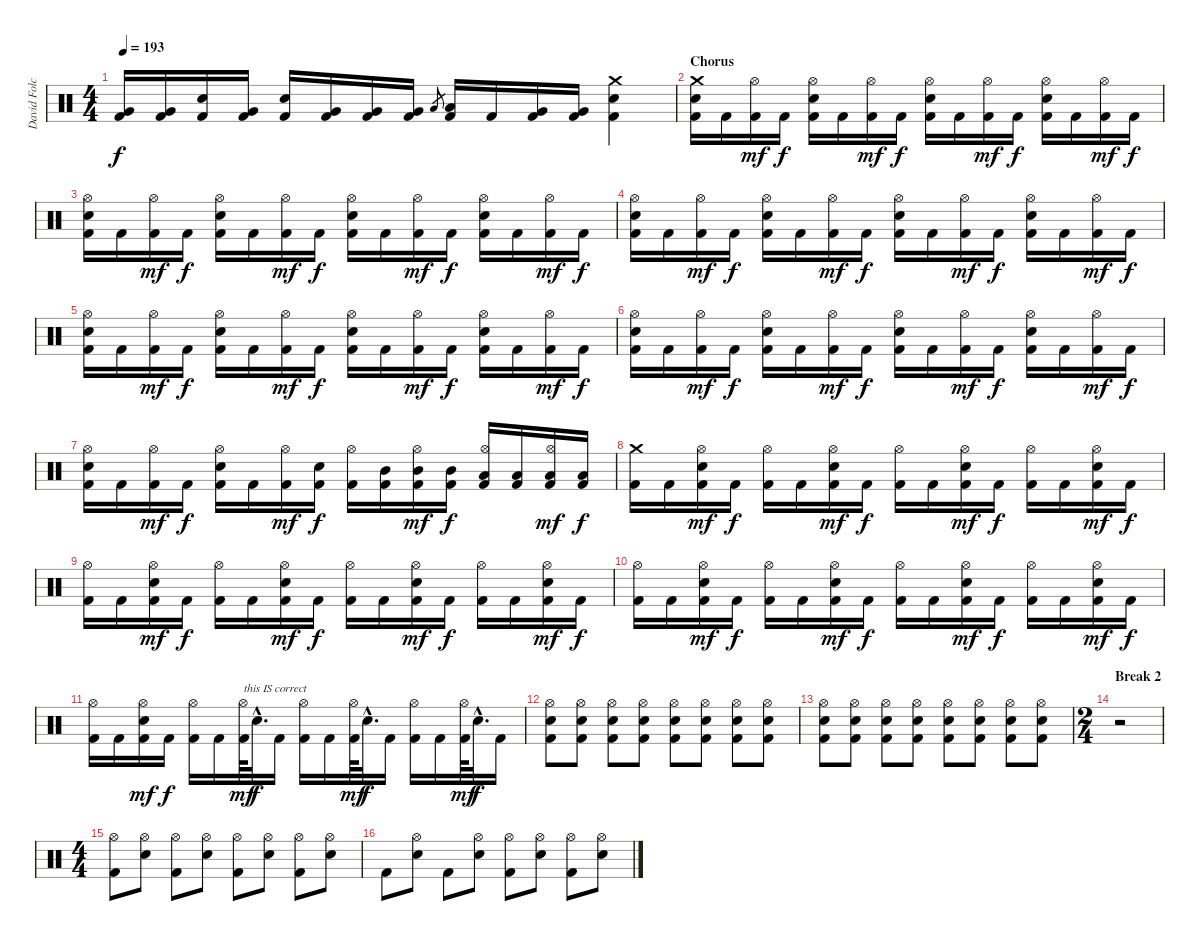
\track ("David Folchitto" "David Folc") {instrument percussion}
\staff {score}
\articulation defaults
\ts (4 4)
\tempo 193
\clef neutral
\ks c
("Very Low Tom (hit)" "Kick (hit) 2").16{dy f} ("Very Low Tom (hit)" "Kick (hit) 2").16 ("Snare (hit) 2" "Kick (hit) 2").16 ("Very Low Tom (hit)" "Kick (hit) 2").16 ("Snare (hit) 2" "Kick (hit) 2").16 ("Very Low Tom (hit)" "Kick (hit) 2").16 ("Very Low Tom (hit)" "Kick (hit) 2").16 ("Very Low Tom (hit)" "Kick (hit) 2").16 "Low Floor Tom (hit)".8{gr} ("Low Floor Tom (hit)" "Kick (hit) 2").16 "Kick (hit) 2".16 ("Very Low Tom (hit)" "Kick (hit) 2").16 ("Very Low Tom (hit)" "Kick (hit) 2").16 ("Crash medium (hit)" "Snare (hit) 2" "Kick (hit) 2").4 |
\section ("" "Chorus")
("Crash medium (hit)" "Snare (hit) 2" "Kick (hit) 2").16 "Kick (hit) 2".16 ("Hi-Hat (open)" "Kick (hit) 2").16{dy mf} "Kick (hit) 2".16{dy f} ("Hi-Hat (open)" "Snare (hit) 2" "Kick (hit) 2").16 "Kick (hit) 2".16 ("Hi-Hat (open)" "Kick (hit) 2").16{dy mf} "Kick (hit) 2".16{dy f} ("Hi-Hat (open)" "Snare (hit) 2" "Kick (hit) 2").16 "Kick (hit) 2".16 ("Hi-Hat (open)" "Kick (hit) 2").16{dy mf} "Kick (hit) 2".16{dy f} ("Hi-Hat (open)" "Snare (hit) 2" "Kick (hit) 2").16 "Kick (hit) 2".16 ("Hi-Hat (open)" "Kick (hit) 2").16{dy mf} "Kick (hit) 2".16{dy f} |
("Hi-Hat (open)" "Snare (hit) 2" "Kick (hit) 2").16 "Kick (hit) 2".16 ("Hi-Hat (open)" "Kick (hit) 2").16{dy mf} "Kick (hit) 2".16{dy f} ("Hi-Hat (open)" "Snare (hit) 2" "Kick (hit) 2").16 "Kick (hit) 2".16 ("Hi-Hat (open)" "Kick (hit) 2").16{dy mf} "Kick (hit) 2".16{dy f} ("Hi-Hat (open)" "Snare (hit) 2" "Kick (hit) 2").16 "Kick (hit) 2".16 ("Hi-Hat (open)" "Kick (hit) 2").16{dy mf} "Kick (hit) 2".16{dy f} ("Hi-Hat (open)" "Snare (hit) 2" "Kick (hit) 2").16 "Kick (hit) 2".16 ("Hi-Hat (open)" "Kick (hit) 2").16{dy mf} "Kick (hit) 2".16{dy f} |
("Hi-Hat (open)" "Snare (hit) 2" "Kick (hit) 2").16 "Kick (hit) 2".16 ("Hi-Hat (open)" "Kick (hit) 2").16{dy mf} "Kick (hit) 2".16{dy f} ("Hi-Hat (open)" "Snare (hit) 2" "Kick (hit) 2").16 "Kick (hit) 2".16 ("Hi-Hat (open)" "Kick (hit) 2").16{dy mf} "Kick (hit) 2".16{dy f} ("Hi-Hat (open)" "Snare (hit) 2" "Kick (hit) 2").16 "Kick (hit) 2".16 ("Hi-Hat (open)" "Kick (hit) 2").16{dy mf} "Kick (hit) 2".16{dy f} ("Hi-Hat (open)" "Snare (hit) 2" "Kick (hit) 2").16 "Kick (hit) 2".16 ("Hi-Hat (open)" "Kick (hit) 2").16{dy mf} "Kick (hit) 2".16{dy f} |
("Hi-Hat (open)" "Snare (hit) 2" "Kick (hit) 2").16 "Kick (hit) 2".16 ("Hi-Hat (open)" "Kick (hit) 2").16{dy mf} "Kick (hit) 2".16{dy f} ("Hi-Hat (open)" "Snare (hit) 2" "Kick (hit) 2").16 "Kick (hit) 2".16 ("Hi-Hat (open)" "Kick (hit) 2").16{dy mf} "Kick (hit) 2".16{dy f} ("Hi-Hat (open)" "Snare (hit) 2" "Kick (hit) 2").16 "Kick (hit) 2".16 ("Hi-Hat (open)" "Kick (hit) 2").16{dy mf} "Kick (hit) 2".16{dy f} ("Hi-Hat (open)" "Snare (hit) 2" "Kick (hit) 2").16 "Kick (hit) 2".16 ("Hi-Hat (open)" "Kick (hit) 2").16{dy mf} "Kick (hit) 2".16{dy f} |
("Hi-Hat (open)" "Snare (hit) 2" "Kick (hit) 2").16 "Kick (hit) 2".16 ("Hi-Hat (open)" "Kick (hit) 2").16{dy mf} "Kick (hit) 2".16{dy f} ("Hi-Hat (open)" "Snare (hit) 2" "Kick (hit) 2").16 "Kick (hit) 2".16 ("Hi-Hat (open)" "Kick (hit) 2").16{dy mf} "Kick (hit) 2".16{dy f} ("Hi-Hat (open)" "Snare (hit) 2" "Kick (hit) 2").16 "Kick (hit) 2".16 ("Hi-Hat (open)" "Kick (hit) 2").16{dy mf} "Kick (hit) 2".16{dy f} ("Hi-Hat (open)" "Snare (hit) 2" "Kick (hit) 2").16 "Kick (hit) 2".16 ("Hi-Hat (open)" "Kick (hit) 2").16{dy mf} "Kick (hit) 2".16{dy f} |
("Hi-Hat (open)" "Snare (hit) 2" "Kick (hit) 2").16 "Kick (hit) 2".16 ("Hi-Hat (open)" "Kick (hit) 2").16{dy mf} "Kick (hit) 2".16{dy f} ("Hi-Hat (open)" "Snare (hit) 2" "Kick (hit) 2").16 "Kick (hit) 2".16 ("Hi-Hat (open)" "Kick (hit) 2").16{dy mf} ("Snare (hit) 2" "Kick (hit) 2").16{dy f} ("Hi-Hat (open)" "Kick (hit) 2").16 ("Mid Tom (hit)" "Kick (hit) 2").16 ("Hi-Hat (open)" "Mid Tom (hit)" "Kick (hit) 2").16{dy mf} ("Mid Tom (hit)" "Kick (hit) 2").16{dy f} ("Hi-Hat (open)" "Low Tom (hit)" "Kick (hit) 2").16 ("Low Tom (hit)" "Kick (hit) 2").16 ("Hi-Hat (open)" "Low Tom (hit)" "Kick (hit) 2").16{dy mf} ("Low Tom (hit)" "Kick (hit) 2").16{dy f} |
("Crash medium (hit)" "Kick (hit) 2").16 "Kick (hit) 2".16 ("Hi-Hat (open)" "Snare (hit) 2" "Kick (hit) 2").16{dy mf} "Kick (hit) 2".16{dy f} ("Hi-Hat (open)" "Kick (hit) 2").16 "Kick (hit) 2".16 ("Hi-Hat (open)" "Snare (hit) 2" "Kick (hit) 2").16{dy mf} "Kick (hit) 2".16{dy f} ("Hi-Hat (open)" "Kick (hit) 2").16 "Kick (hit) 2".16 ("Hi-Hat (open)" "Snare (hit) 2" "Kick (hit) 2").16{dy mf} "Kick (hit) 2".16{dy f} ("Hi-Hat (open)" "Kick (hit) 2").16 "Kick (hit) 2".16 ("Hi-Hat (open)" "Snare (hit) 2" "Kick (hit) 2").16{dy mf} "Kick (hit) 2".16{dy f} |
("Hi-Hat (open)" "Kick (hit) 2").16 "Kick (hit) 2".16 ("Hi-Hat (open)" "Snare (hit) 2" "Kick (hit) 2").16{dy mf} "Kick (hit) 2".16{dy f} ("Hi-Hat (open)" "Kick (hit) 2").16 "Kick (hit) 2".16 ("Hi-Hat (open)" "Snare (hit) 2" "Kick (hit) 2").16{dy mf} "Kick (hit) 2".16{dy f} ("Hi-Hat (open)" "Kick (hit) 2").16 "Kick (hit) 2".16 ("Hi-Hat (open)" "Snare (hit) 2" "Kick (hit) 2").16{dy mf} "Kick (hit) 2".16{dy f} ("Hi-Hat (open)" "Kick (hit) 2").16 "Kick (hit) 2".16 ("Hi-Hat (open)" "Snare (hit) 2" "Kick (hit) 2").16{dy mf} "Kick (hit) 2".16{dy f} |
("Hi-Hat (open)" "Kick (hit) 2").16 "Kick (hit) 2".16 ("Hi-Hat (open)" "Snare (hit) 2" "Kick (hit) 2").16{dy mf} "Kick (hit) 2".16{dy f} ("Hi-Hat (open)" "Kick (hit) 2").16 "Kick (hit) 2".16 ("Hi-Hat (open)" "Snare (hit) 2" "Kick (hit) 2").16{dy mf} "Kick (hit) 2".16{dy f} ("Hi-Hat (open)" "Kick (hit) 2").16 "Kick (hit) 2".16 ("Hi-Hat (open)" "Snare (hit) 2" "Kick (hit) 2").16{dy mf} "Kick (hit) 2".16{dy f} ("Hi-Hat (open)" "Kick (hit) 2").16 "Kick (hit) 2".16 ("Hi-Hat (open)" "Snare (hit) 2" "Kick (hit) 2").16{dy mf} "Kick (hit) 2".16{dy f} |
("Hi-Hat (open)" "Kick (hit) 2").16 "Kick (hit) 2".16 ("Hi-Hat (open)" "Snare (hit) 2" "Kick (hit) 2").16{dy mf} "Kick (hit) 2".16{dy f} ("Hi-Hat (open)" "Kick (hit) 2").16 "Kick (hit) 2".16 ("Hi-Hat (open)" "Kick (hit) 2").64{txt "this IS correct" dy mf} "Snare (hit) 2"{hac}.32{d dy f} "Kick (hit) 2".16 ("Hi-Hat (open)" "Kick (hit) 2").16 "Kick (hit) 2".16 ("Hi-Hat (open)" "Kick (hit) 2").64{dy mf} "Snare (hit) 2"{hac}.32{d dy f} "Kick (hit) 2".16 ("Hi-Hat (open)" "Kick (hit) 2").16 "Kick (hit) 2".16 ("Hi-Hat (open)" "Kick (hit) 2").64{dy mf} "Snare (hit) 2"{hac}.32{d dy f} "Kick (hit) 2".16 |
("Hi-Hat (open)" "Snare (hit) 2" "Kick (hit) 2").8 ("Hi-Hat (open)" "Snare (hit) 2" "Kick (hit) 2").8 ("Hi-Hat (open)" "Snare (hit) 2" "Kick (hit) 2").8 ("Hi-Hat (open)" "Snare (hit) 2" "Kick (hit) 2").8 ("Hi-Hat (open)" "Snare (hit) 2" "Kick (hit) 2").8 ("Hi-Hat (open)" "Snare (hit) 2" "Kick (hit) 2").8 ("Hi-Hat (open)" "Snare (hit) 2" "Kick (hit) 2").8 ("Hi-Hat (open)" "Snare (hit) 2" "Kick (hit) 2").8 |
("Hi-Hat (open)" "Snare (hit) 2" "Kick (hit) 2").8 ("Hi-Hat (open)" "Snare (hit) 2" "Kick (hit) 2").8 ("Hi-Hat (open)" "Snare (hit) 2" "Kick (hit) 2").8 ("Hi-Hat (open)" "Snare (hit) 2" "Kick (hit) 2").8 ("Hi-Hat (open)" "Snare (hit) 2" "Kick (hit) 2").8 ("Hi-Hat (open)" "Snare (hit) 2" "Kick (hit) 2").8 ("Hi-Hat (open)" "Snare (hit) 2" "Kick (hit) 2").8 ("Hi-Hat (open)" "Snare (hit) 2" "Kick (hit) 2").8 |
\ts (2 4)
\section ("" "Break 2")
r.2 |
\ts (4 4)
("Hi-Hat (open)" "Kick (hit) 2").8 ("Hi-Hat (open)" "Snare (hit) 2").8 ("Hi-Hat (open)" "Kick (hit) 2").8 ("Hi-Hat (open)" "Snare (hit) 2").8 ("Hi-Hat (open)" "Kick (hit) 2").8 ("Hi-Hat (open)" "Snare (hit) 2").8 ("Hi-Hat (open)" "Kick (hit) 2").8 ("Hi-Hat (open)" "Snare (hit) 2").8 |
"Kick (hit) 2".8 ("Hi-Hat (open)" "Snare (hit) 2").8 "Kick (hit) 2".8 ("Hi-Hat (open)" "Snare (hit) 2").8 ("Hi-Hat (open)" "Kick (hit) 2").8 ("Hi-Hat (open)" "Snare (hit) 2").8 ("Hi-Hat (open)" "Kick (hit) 2").8 ("Hi-Hat (open)" "Snare (hit) 2").8
